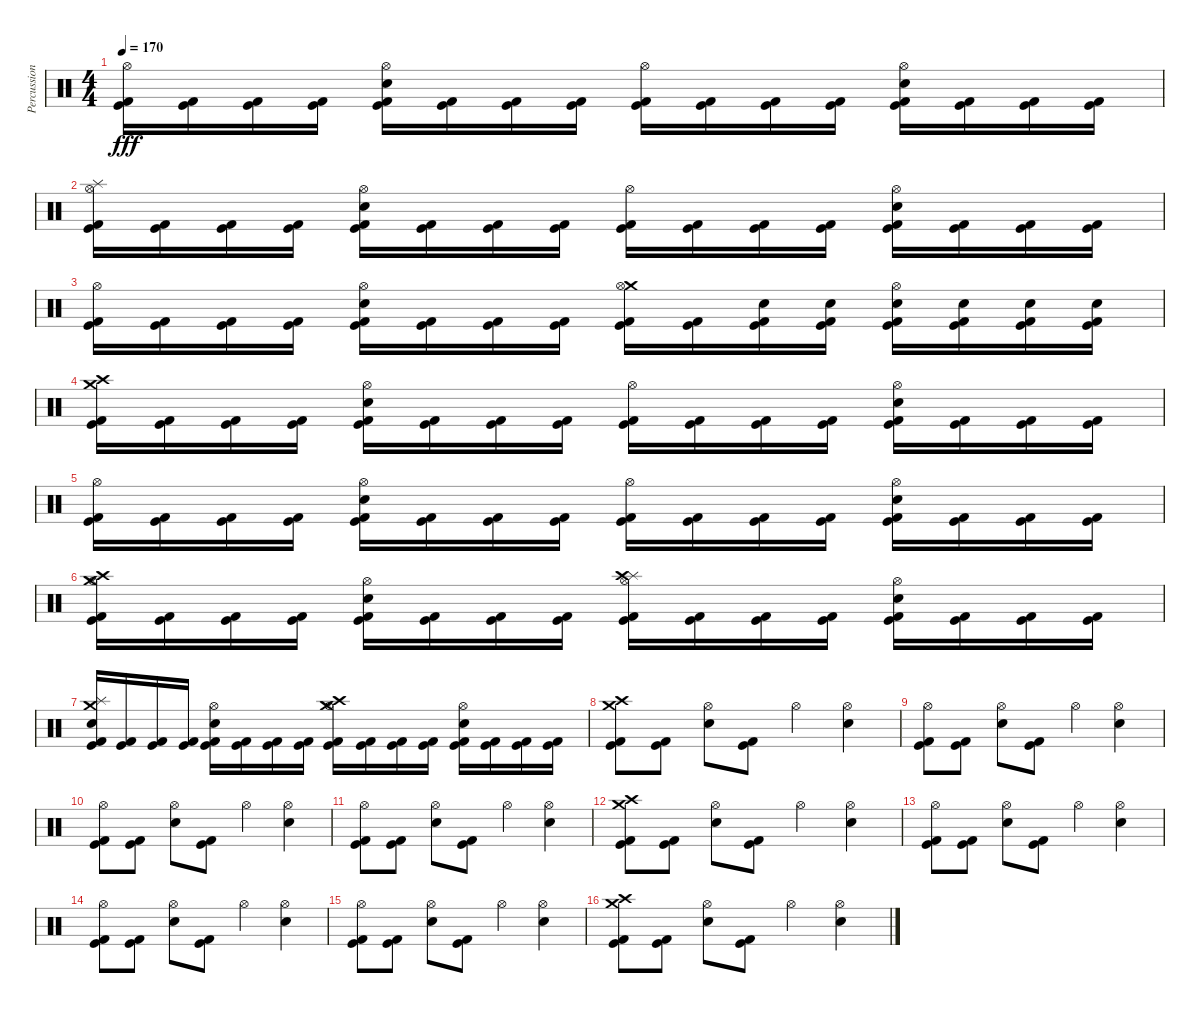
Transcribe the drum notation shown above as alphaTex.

\track ("Percussions" "Percussion") {instrument percussion}
\staff {score}
\articulation defaults
\ts (4 4)
\tempo 170
\clef neutral
\ks c
("Hi-Hat (open)" "Kick (hit)" "Kick (hit) 2").16{dy fff} ("Kick (hit)" "Kick (hit) 2").16 ("Kick (hit)" "Kick (hit) 2").16 ("Kick (hit)" "Kick (hit) 2").16 ("Hi-Hat (open)" "Electric Snare (hit)" "Kick (hit)" "Kick (hit) 2").16 ("Kick (hit)" "Kick (hit) 2").16 ("Kick (hit)" "Kick (hit) 2").16 ("Kick (hit)" "Kick (hit) 2").16 ("Hi-Hat (open)" "Kick (hit)" "Kick (hit) 2").16 ("Kick (hit)" "Kick (hit) 2").16 ("Kick (hit)" "Kick (hit) 2").16 ("Kick (hit)" "Kick (hit) 2").16 ("Hi-Hat (open)" "Electric Snare (hit)" "Kick (hit)" "Kick (hit) 2").16 ("Kick (hit)" "Kick (hit) 2").16 ("Kick (hit)" "Kick (hit) 2").16 ("Kick (hit)" "Kick (hit) 2").16 |
("Splash (hit)" "Hi-Hat (open)" "Kick (hit)" "Kick (hit) 2").16 ("Kick (hit)" "Kick (hit) 2").16 ("Kick (hit)" "Kick (hit) 2").16 ("Kick (hit)" "Kick (hit) 2").16 ("Hi-Hat (open)" "Electric Snare (hit)" "Kick (hit)" "Kick (hit) 2").16 ("Kick (hit)" "Kick (hit) 2").16 ("Kick (hit)" "Kick (hit) 2").16 ("Kick (hit)" "Kick (hit) 2").16 ("Hi-Hat (open)" "Kick (hit)" "Kick (hit) 2").16 ("Kick (hit)" "Kick (hit) 2").16 ("Kick (hit)" "Kick (hit) 2").16 ("Kick (hit)" "Kick (hit) 2").16 ("Hi-Hat (open)" "Electric Snare (hit)" "Kick (hit)" "Kick (hit) 2").16 ("Kick (hit)" "Kick (hit) 2").16 ("Kick (hit)" "Kick (hit) 2").16 ("Kick (hit)" "Kick (hit) 2").16 |
("Hi-Hat (open)" "Kick (hit)" "Kick (hit) 2").16 ("Kick (hit)" "Kick (hit) 2").16 ("Kick (hit)" "Kick (hit) 2").16 ("Kick (hit)" "Kick (hit) 2").16 ("Hi-Hat (open)" "Electric Snare (hit)" "Kick (hit)" "Kick (hit) 2").16 ("Kick (hit)" "Kick (hit) 2").16 ("Kick (hit)" "Kick (hit) 2").16 ("Kick (hit)" "Kick (hit) 2").16 ("Crash medium (hit)" "Hi-Hat (open)" "Kick (hit)" "Kick (hit) 2").16 ("Kick (hit)" "Kick (hit) 2").16 ("Electric Snare (hit)" "Kick (hit)" "Kick (hit) 2").16 ("Electric Snare (hit)" "Kick (hit)" "Kick (hit) 2").16 ("Hi-Hat (open)" "Electric Snare (hit)" "Kick (hit)" "Kick (hit) 2").16 ("Electric Snare (hit)" "Kick (hit)" "Kick (hit) 2").16 ("Electric Snare (hit)" "Kick (hit)" "Kick (hit) 2").16 ("Electric Snare (hit)" "Kick (hit)" "Kick (hit) 2").16 |
("Crash medium (hit)" "Crash high (hit)" "Kick (hit)" "Kick (hit) 2").16 ("Kick (hit)" "Kick (hit) 2").16 ("Kick (hit)" "Kick (hit) 2").16 ("Kick (hit)" "Kick (hit) 2").16 ("Hi-Hat (open)" "Electric Snare (hit)" "Kick (hit)" "Kick (hit) 2").16 ("Kick (hit)" "Kick (hit) 2").16 ("Kick (hit)" "Kick (hit) 2").16 ("Kick (hit)" "Kick (hit) 2").16 ("Hi-Hat (open)" "Kick (hit)" "Kick (hit) 2").16 ("Kick (hit)" "Kick (hit) 2").16 ("Kick (hit)" "Kick (hit) 2").16 ("Kick (hit)" "Kick (hit) 2").16 ("Hi-Hat (open)" "Electric Snare (hit)" "Kick (hit)" "Kick (hit) 2").16 ("Kick (hit)" "Kick (hit) 2").16 ("Kick (hit)" "Kick (hit) 2").16 ("Kick (hit)" "Kick (hit) 2").16 |
("Hi-Hat (open)" "Kick (hit)" "Kick (hit) 2").16 ("Kick (hit)" "Kick (hit) 2").16 ("Kick (hit)" "Kick (hit) 2").16 ("Kick (hit)" "Kick (hit) 2").16 ("Hi-Hat (open)" "Electric Snare (hit)" "Kick (hit)" "Kick (hit) 2").16 ("Kick (hit)" "Kick (hit) 2").16 ("Kick (hit)" "Kick (hit) 2").16 ("Kick (hit)" "Kick (hit) 2").16 ("Hi-Hat (open)" "Kick (hit)" "Kick (hit) 2").16 ("Kick (hit)" "Kick (hit) 2").16 ("Kick (hit)" "Kick (hit) 2").16 ("Kick (hit)" "Kick (hit) 2").16 ("Hi-Hat (open)" "Electric Snare (hit)" "Kick (hit)" "Kick (hit) 2").16 ("Kick (hit)" "Kick (hit) 2").16 ("Kick (hit)" "Kick (hit) 2").16 ("Kick (hit)" "Kick (hit) 2").16 |
("Crash medium (hit)" "Hi-Hat (open)" "Crash high (hit)" "Kick (hit)" "Kick (hit) 2").16 ("Kick (hit)" "Kick (hit) 2").16 ("Kick (hit)" "Kick (hit) 2").16 ("Kick (hit)" "Kick (hit) 2").16 ("Hi-Hat (open)" "Electric Snare (hit)" "Kick (hit)" "Kick (hit) 2").16 ("Kick (hit)" "Kick (hit) 2").16 ("Kick (hit)" "Kick (hit) 2").16 ("Kick (hit)" "Kick (hit) 2").16 ("Splash (hit)" "Hi-Hat (open)" "Crash high (hit)" "Kick (hit)" "Kick (hit) 2").16 ("Kick (hit)" "Kick (hit) 2").16 ("Kick (hit)" "Kick (hit) 2").16 ("Kick (hit)" "Kick (hit) 2").16 ("Hi-Hat (open)" "Electric Snare (hit)" "Kick (hit)" "Kick (hit) 2").16 ("Kick (hit)" "Kick (hit) 2").16 ("Kick (hit)" "Kick (hit) 2").16 ("Kick (hit)" "Kick (hit) 2").16 |
("Splash (hit)" "Snare (hit)" "Crash medium (hit)" "Kick (hit)" "Kick (hit) 2").16 ("Kick (hit)" "Kick (hit) 2").16 ("Kick (hit)" "Kick (hit) 2").16 ("Kick (hit)" "Kick (hit) 2").16 ("Hi-Hat (open)" "Electric Snare (hit)" "Kick (hit)" "Kick (hit) 2").16 ("Kick (hit)" "Kick (hit) 2").16 ("Kick (hit)" "Kick (hit) 2").16 ("Kick (hit)" "Kick (hit) 2").16 ("Crash medium (hit)" "Hi-Hat (open)" "Crash high (hit)" "Kick (hit)" "Kick (hit) 2").16 ("Kick (hit)" "Kick (hit) 2").16 ("Kick (hit)" "Kick (hit) 2").16 ("Kick (hit)" "Kick (hit) 2").16 ("Hi-Hat (open)" "Electric Snare (hit)" "Kick (hit)" "Kick (hit) 2").16 ("Kick (hit)" "Kick (hit) 2").16 ("Kick (hit)" "Kick (hit) 2").16 ("Kick (hit)" "Kick (hit) 2").16 |
("Crash high (hit)" "Crash medium (hit)" "Kick (hit)" "Kick (hit) 2").8 ("Kick (hit)" "Kick (hit) 2").8 ("Hi-Hat (open)" "Electric Snare (hit)").8 ("Kick (hit)" "Kick (hit) 2").8 "Hi-Hat (open)".4 ("Hi-Hat (open)" "Electric Snare (hit)").4 |
("Hi-Hat (open)" "Kick (hit)" "Kick (hit) 2").8 ("Kick (hit)" "Kick (hit) 2").8 ("Hi-Hat (open)" "Electric Snare (hit)").8 ("Kick (hit)" "Kick (hit) 2").8 "Hi-Hat (open)".4 ("Hi-Hat (open)" "Electric Snare (hit)").4 |
("Hi-Hat (open)" "Kick (hit)" "Kick (hit) 2").8 ("Kick (hit)" "Kick (hit) 2").8 ("Hi-Hat (open)" "Electric Snare (hit)").8 ("Kick (hit)" "Kick (hit) 2").8 "Hi-Hat (open)".4 ("Hi-Hat (open)" "Electric Snare (hit)").4 |
("Hi-Hat (open)" "Kick (hit)" "Kick (hit) 2").8 ("Kick (hit)" "Kick (hit) 2").8 ("Hi-Hat (open)" "Electric Snare (hit)").8 ("Kick (hit)" "Kick (hit) 2").8 "Hi-Hat (open)".4 ("Hi-Hat (open)" "Electric Snare (hit)").4 |
("Crash high (hit)" "Crash medium (hit)" "Kick (hit)" "Kick (hit) 2").8 ("Kick (hit)" "Kick (hit) 2").8 ("Hi-Hat (open)" "Electric Snare (hit)").8 ("Kick (hit)" "Kick (hit) 2").8 "Hi-Hat (open)".4 ("Hi-Hat (open)" "Electric Snare (hit)").4 |
("Hi-Hat (open)" "Kick (hit)" "Kick (hit) 2").8 ("Kick (hit)" "Kick (hit) 2").8 ("Hi-Hat (open)" "Electric Snare (hit)").8 ("Kick (hit)" "Kick (hit) 2").8 "Hi-Hat (open)".4 ("Hi-Hat (open)" "Electric Snare (hit)").4 |
("Hi-Hat (open)" "Kick (hit)" "Kick (hit) 2").8 ("Kick (hit)" "Kick (hit) 2").8 ("Hi-Hat (open)" "Electric Snare (hit)").8 ("Kick (hit)" "Kick (hit) 2").8 "Hi-Hat (open)".4 ("Hi-Hat (open)" "Electric Snare (hit)").4 |
("Hi-Hat (open)" "Kick (hit)" "Kick (hit) 2").8 ("Kick (hit)" "Kick (hit) 2").8 ("Hi-Hat (open)" "Electric Snare (hit)").8 ("Kick (hit)" "Kick (hit) 2").8 "Hi-Hat (open)".4 ("Hi-Hat (open)" "Electric Snare (hit)").4 |
("Crash high (hit)" "Crash medium (hit)" "Kick (hit)" "Kick (hit) 2").8 ("Kick (hit)" "Kick (hit) 2").8 ("Hi-Hat (open)" "Electric Snare (hit)").8 ("Kick (hit)" "Kick (hit) 2").8 "Hi-Hat (open)".4 ("Hi-Hat (open)" "Electric Snare (hit)").4
